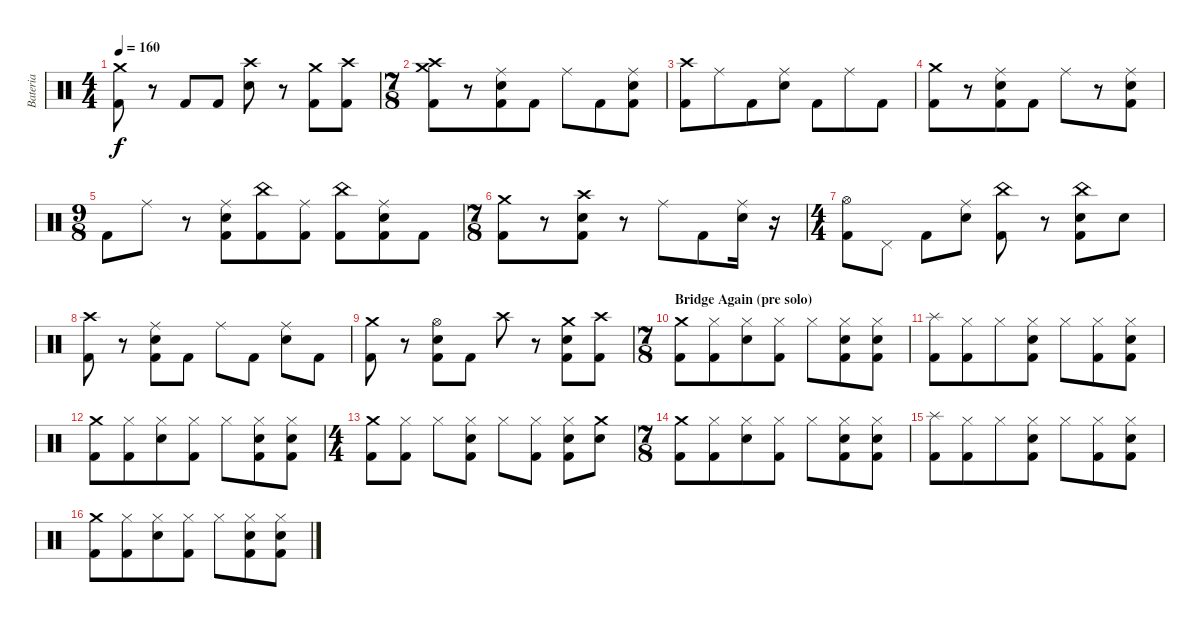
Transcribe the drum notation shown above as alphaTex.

\track ("Bateria" "Bateria") {instrument percussion}
\staff {score}
\articulation defaults
\ts (4 4)
\tempo 160
\clef neutral
\ks c
("Crash medium (hit)" "Kick (hit) 2").8{dy f} r.8 "Kick (hit) 2".8 "Kick (hit) 2".8 ("Crash high (hit)" "Electric Snare (hit)").8 r.8 ("Crash medium (hit)" "Kick (hit) 2").8 ("Crash high (hit)" "Kick (hit) 2").8 |
\ts (7 8)
("Crash medium (hit)" "Crash high (hit)" "Kick (hit) 2").8 r.8 ("Ride (middle)" "Electric Snare (hit)" "Kick (hit) 2").8 "Kick (hit) 2".8 "Ride (middle)".8 "Kick (hit) 2".8 ("Ride (middle)" "Electric Snare (hit)" "Kick (hit) 2").8 |
("Crash high (hit)" "Kick (hit) 2").8 "Ride (middle)".8 "Kick (hit) 2".8 ("Ride (middle)" "Electric Snare (hit)").8 "Kick (hit) 2".8 "Ride (middle)".8 "Kick (hit) 2".8 |
("Crash medium (hit)" "Kick (hit) 2").8 r.8 ("Ride (middle)" "Electric Snare (hit)" "Kick (hit) 2").8 "Kick (hit) 2".8 "Ride (middle)".8 r.8 ("Ride (middle)" "Electric Snare (hit)" "Kick (hit) 2").8 |
\ts (9 8)
"Kick (hit) 2".8 "Ride (middle)".8 r.8 ("Ride (middle)" "Electric Snare (hit)" "Kick (hit) 2").8 ("China (hit)" "Kick (hit) 2").8 ("Ride (middle)" "Kick (hit) 2").8 ("China (hit)" "Kick (hit) 2").8 ("Ride (middle)" "Electric Snare (hit)" "Kick (hit) 2").8 "Kick (hit) 2".8 |
\ts (7 8)
("Crash medium (hit)" "Kick (hit) 2").8 r.8 ("Crash high (hit)" "Electric Snare (hit)" "Kick (hit) 2").8 r.8 "Ride (middle)".8 "Kick (hit) 2".8 ("Ride (middle)" "Electric Snare (hit)").16 r.16 |
\ts (4 4)
("Hi-Hat (open)" "Kick (hit) 2").8 "Pedal Hi-Hat (hit)".8 "Kick (hit) 2".8 ("Ride (middle)" "Electric Snare (hit)").8 ("China (hit)" "Kick (hit) 2").8 r.8 ("China (hit)" "Electric Snare (hit)" "Kick (hit) 2").8 "Electric Snare (hit)".8 |
("Crash high (hit)" "Kick (hit) 2").8 r.8 ("Ride (middle)" "Electric Snare (hit)" "Kick (hit) 2").8 "Kick (hit) 2".8 "Ride (middle)".8 "Kick (hit) 2".8 ("Ride (middle)" "Electric Snare (hit)").8 "Kick (hit) 2".8 |
("Crash medium (hit)" "Kick (hit) 2").8 r.8 ("Hi-Hat (open)" "Electric Snare (hit)" "Kick (hit) 2").8 "Kick (hit) 2".8 "Crash high (hit)".8 r.8 ("Crash medium (hit)" "Electric Snare (hit)" "Kick (hit) 2").8 ("Crash high (hit)" "Kick (hit) 2").8 |
\ts (7 8)
\section ("" "Bridge Again (pre solo)")
("Crash medium (hit)" "Kick (hit) 2").8 ("Hi-Hat (closed)" "Kick (hit) 2").8 ("Hi-Hat (closed)" "Electric Snare (hit)").8 ("Hi-Hat (closed)" "Kick (hit) 2").8 "Hi-Hat (closed)".8 ("Hi-Hat (closed)" "Electric Snare (hit)" "Kick (hit) 2").8 ("Hi-Hat (closed)" "Electric Snare (hit)" "Kick (hit) 2").8 |
("Splash (hit)" "Kick (hit) 2").8 ("Hi-Hat (closed)" "Kick (hit) 2").8 "Hi-Hat (closed)".8 ("Hi-Hat (closed)" "Electric Snare (hit)" "Kick (hit) 2").8 "Hi-Hat (closed)".8 ("Hi-Hat (closed)" "Kick (hit) 2").8 ("Hi-Hat (closed)" "Electric Snare (hit)" "Kick (hit) 2").8 |
("Crash medium (hit)" "Kick (hit) 2").8 ("Hi-Hat (closed)" "Kick (hit) 2").8 ("Hi-Hat (closed)" "Electric Snare (hit)").8 ("Hi-Hat (closed)" "Kick (hit) 2").8 "Hi-Hat (closed)".8 ("Hi-Hat (closed)" "Electric Snare (hit)" "Kick (hit) 2").8 ("Hi-Hat (closed)" "Electric Snare (hit)" "Kick (hit) 2").8 |
\ts (4 4)
("Crash medium (hit)" "Kick (hit) 2").8 ("Hi-Hat (closed)" "Kick (hit) 2").8 "Hi-Hat (closed)".8 ("Hi-Hat (closed)" "Electric Snare (hit)" "Kick (hit) 2").8 "Hi-Hat (closed)".8 ("Hi-Hat (closed)" "Kick (hit) 2").8 ("Hi-Hat (closed)" "Electric Snare (hit)" "Kick (hit) 2").8 ("Crash medium (hit)" "Electric Snare (hit)").8 |
\ts (7 8)
("Crash medium (hit)" "Kick (hit) 2").8 ("Hi-Hat (closed)" "Kick (hit) 2").8 ("Hi-Hat (closed)" "Electric Snare (hit)").8 ("Hi-Hat (closed)" "Kick (hit) 2").8 "Hi-Hat (closed)".8 ("Hi-Hat (closed)" "Electric Snare (hit)" "Kick (hit) 2").8 ("Hi-Hat (closed)" "Electric Snare (hit)" "Kick (hit) 2").8 |
("Splash (hit)" "Kick (hit) 2").8 ("Hi-Hat (closed)" "Kick (hit) 2").8 "Hi-Hat (closed)".8 ("Hi-Hat (closed)" "Electric Snare (hit)" "Kick (hit) 2").8 "Hi-Hat (closed)".8 ("Hi-Hat (closed)" "Kick (hit) 2").8 ("Hi-Hat (closed)" "Electric Snare (hit)" "Kick (hit) 2").8 |
("Crash medium (hit)" "Kick (hit) 2").8 ("Hi-Hat (closed)" "Kick (hit) 2").8 ("Hi-Hat (closed)" "Electric Snare (hit)").8 ("Hi-Hat (closed)" "Kick (hit) 2").8 "Hi-Hat (closed)".8 ("Hi-Hat (closed)" "Electric Snare (hit)" "Kick (hit) 2").8 ("Hi-Hat (closed)" "Electric Snare (hit)" "Kick (hit) 2").8
